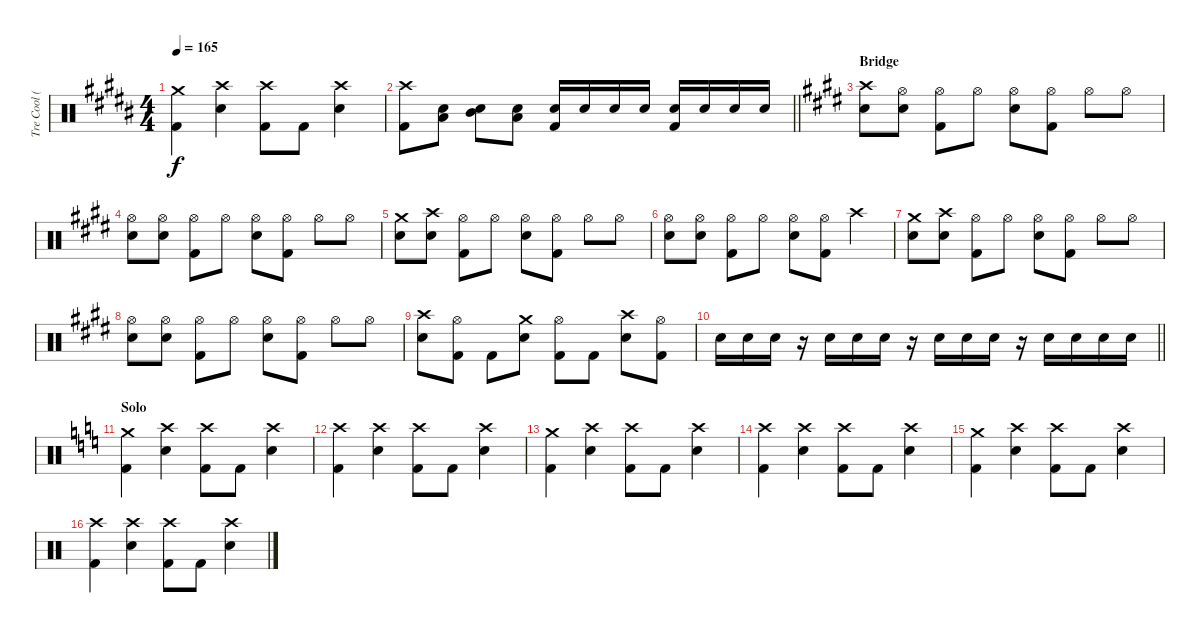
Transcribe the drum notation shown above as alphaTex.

\track ("Tre Cool (Drums)" "Tre Cool (") {instrument percussion}
\staff {score}
\articulation defaults
\ts (4 4)
\tempo 165
\clef neutral
\ks b
("Crash medium (hit)" "Kick (hit) 2").4{dy f} ("Crash high (hit)" "Electric Snare (hit)").4 ("Crash high (hit)" "Kick (hit) 2").8 "Kick (hit) 2".8 ("Crash high (hit)" "Electric Snare (hit)").4 |
\barLineRight lightlight
("Crash high (hit)" "Kick (hit) 2").8 ("Low Tom (hit)" "Electric Snare (hit)").8 ("Mid Tom (hit)" "Electric Snare (hit)").8 ("Low Tom (hit)" "Electric Snare (hit)").8 ("Electric Snare (hit)" "Kick (hit) 2").16 "Electric Snare (hit)".16 "Electric Snare (hit)".16 "Electric Snare (hit)".16 ("Electric Snare (hit)" "Kick (hit) 2").16 "Electric Snare (hit)".16 "Electric Snare (hit)".16 "Electric Snare (hit)".16 |
\section ("" "Bridge")
\ks e
("Crash high (hit)" "Electric Snare (hit)").8 ("Hi-Hat (open)" "Electric Snare (hit)").8 ("Hi-Hat (open)" "Kick (hit) 2").8 "Hi-Hat (open)".8 ("Hi-Hat (open)" "Electric Snare (hit)").8 ("Hi-Hat (open)" "Kick (hit) 2").8 "Hi-Hat (open)".8 "Hi-Hat (open)".8 |
("Hi-Hat (open)" "Electric Snare (hit)").8 ("Hi-Hat (open)" "Electric Snare (hit)").8 ("Hi-Hat (open)" "Kick (hit) 2").8 "Hi-Hat (open)".8 ("Hi-Hat (open)" "Electric Snare (hit)").8 ("Hi-Hat (open)" "Kick (hit) 2").8 "Hi-Hat (open)".8 "Hi-Hat (open)".8 |
("Crash medium (hit)" "Electric Snare (hit)").8 ("Crash high (hit)" "Electric Snare (hit)").8 ("Hi-Hat (open)" "Kick (hit) 2").8 "Hi-Hat (open)".8 ("Hi-Hat (open)" "Electric Snare (hit)").8 ("Hi-Hat (open)" "Kick (hit) 2").8 "Hi-Hat (open)".8 "Hi-Hat (open)".8 |
("Hi-Hat (open)" "Electric Snare (hit)").8 ("Hi-Hat (open)" "Electric Snare (hit)").8 ("Hi-Hat (open)" "Kick (hit) 2").8 "Hi-Hat (open)".8 ("Hi-Hat (open)" "Electric Snare (hit)").8 ("Hi-Hat (open)" "Kick (hit) 2").8 "Crash high (hit)".4 |
("Crash medium (hit)" "Electric Snare (hit)").8 ("Crash high (hit)" "Electric Snare (hit)").8 ("Hi-Hat (open)" "Kick (hit) 2").8 "Hi-Hat (open)".8 ("Hi-Hat (open)" "Electric Snare (hit)").8 ("Hi-Hat (open)" "Kick (hit) 2").8 "Hi-Hat (open)".8 "Hi-Hat (open)".8 |
("Hi-Hat (open)" "Electric Snare (hit)").8 ("Hi-Hat (open)" "Electric Snare (hit)").8 ("Hi-Hat (open)" "Kick (hit) 2").8 "Hi-Hat (open)".8 ("Hi-Hat (open)" "Electric Snare (hit)").8 ("Hi-Hat (open)" "Kick (hit) 2").8 "Hi-Hat (open)".8 "Hi-Hat (open)".8 |
("Electric Snare (hit)" "Crash high (hit)").8 ("Kick (hit) 2" "Hi-Hat (open)").8 "Kick (hit) 2".8 ("Electric Snare (hit)" "Crash medium (hit)").8 ("Kick (hit) 2" "Hi-Hat (open)").8 "Kick (hit) 2".8 ("Electric Snare (hit)" "Crash high (hit)").8 ("Kick (hit) 2" "Hi-Hat (open)").8 |
\barLineRight lightlight "Electric Snare (hit)".16 "Electric Snare (hit)".16 "Electric Snare (hit)".16
r.16 "Electric Snare (hit)".16 "Electric Snare (hit)".16 "Electric Snare (hit)".16 r.16 "Electric Snare (hit)".16 "Electric Snare (hit)".16 "Electric Snare (hit)".16 r.16 "Electric Snare (hit)".16 "Electric Snare (hit)".16 "Electric Snare (hit)".16 "Electric Snare (hit)".16 |
\section ("" "Solo")
\ks c
("Crash medium (hit)" "Kick (hit) 2").4 ("Crash high (hit)" "Electric Snare (hit)").4 ("Crash high (hit)" "Kick (hit) 2").8 "Kick (hit) 2".8 ("Crash high (hit)" "Electric Snare (hit)").4 |
("Crash high (hit)" "Kick (hit) 2").4 ("Crash high (hit)" "Electric Snare (hit)").4 ("Crash high (hit)" "Kick (hit) 2").8 "Kick (hit) 2".8 ("Crash high (hit)" "Electric Snare (hit)").4 |
("Crash medium (hit)" "Kick (hit) 2").4 ("Crash high (hit)" "Electric Snare (hit)").4 ("Crash high (hit)" "Kick (hit) 2").8 "Kick (hit) 2".8 ("Crash high (hit)" "Electric Snare (hit)").4 |
("Crash high (hit)" "Kick (hit) 2").4 ("Crash high (hit)" "Electric Snare (hit)").4 ("Crash high (hit)" "Kick (hit) 2").8 "Kick (hit) 2".8 ("Crash high (hit)" "Electric Snare (hit)").4 |
("Crash medium (hit)" "Kick (hit) 2").4 ("Crash high (hit)" "Electric Snare (hit)").4 ("Crash high (hit)" "Kick (hit) 2").8 "Kick (hit) 2".8 ("Crash high (hit)" "Electric Snare (hit)").4 |
("Crash high (hit)" "Kick (hit) 2").4 ("Crash high (hit)" "Electric Snare (hit)").4 ("Crash high (hit)" "Kick (hit) 2").8 "Kick (hit) 2".8 ("Crash high (hit)" "Electric Snare (hit)").4
